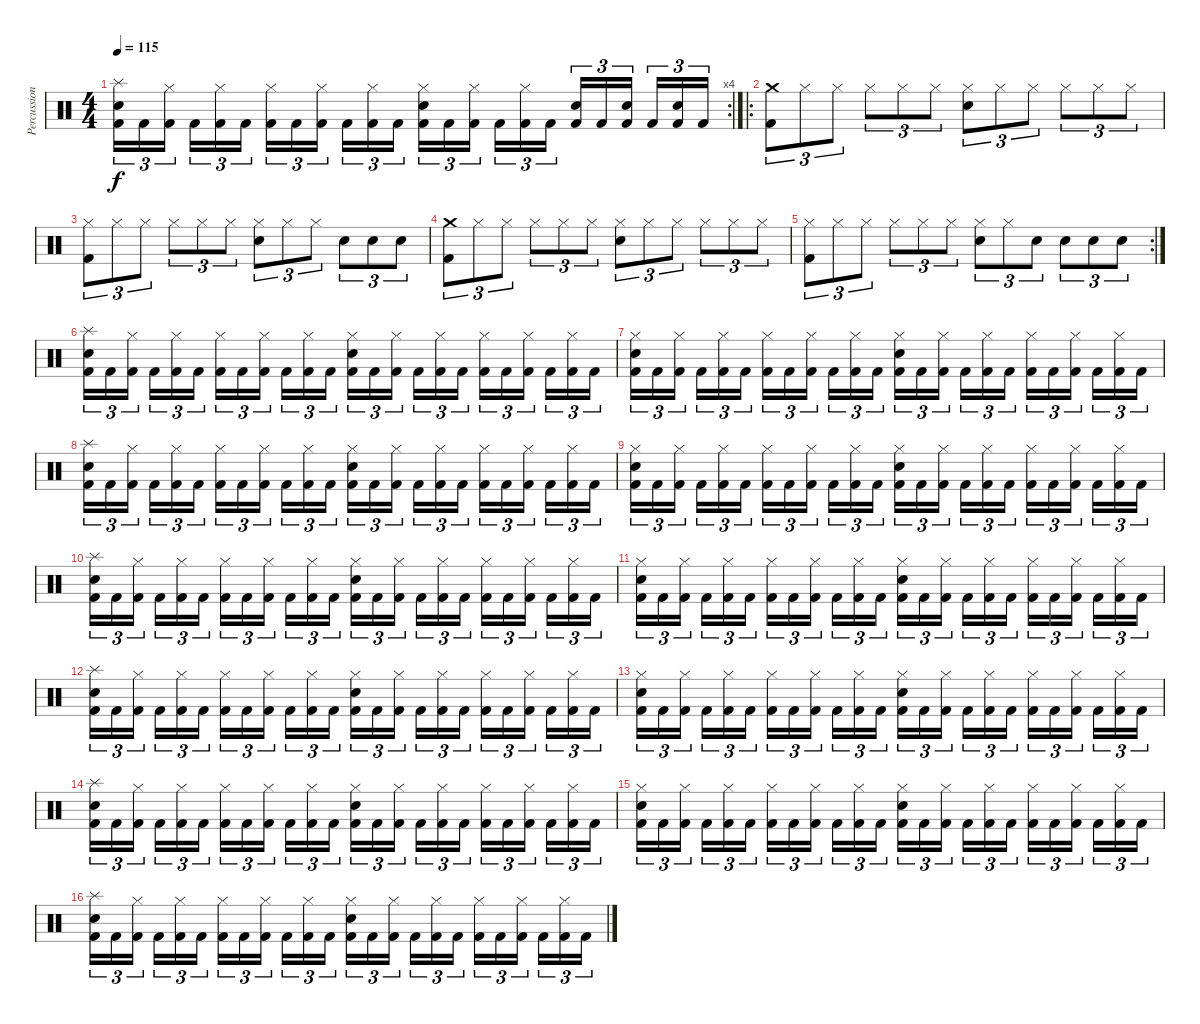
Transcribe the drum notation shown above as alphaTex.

\track ("Percussions" "Percussion") {instrument percussion}
\staff {score}
\articulation defaults
\rc 4
\ts (4 4)
\tempo 115
\clef neutral
\ks c
("Splash (hit)" "Snare (hit) 2" "Kick (hit) 2").16{tu (3 2) dy f} "Kick (hit) 2".16{tu (3 2)} ("Hi-Hat (closed)" "Kick (hit) 2").16{tu (3 2)} "Kick (hit) 2".16{tu (3 2)} ("Hi-Hat (closed)" "Kick (hit) 2").16{tu (3 2)} "Kick (hit) 2".16{tu (3 2)} ("Hi-Hat (closed)" "Kick (hit) 2").16{tu (3 2)} "Kick (hit) 2".16{tu (3 2)} ("Hi-Hat (closed)" "Kick (hit) 2").16{tu (3 2)} "Kick (hit) 2".16{tu (3 2)} ("Hi-Hat (closed)" "Kick (hit) 2").16{tu (3 2)} "Kick (hit) 2".16{tu (3 2)} ("Hi-Hat (closed)" "Snare (hit) 2" "Kick (hit) 2").16{tu (3 2)} "Kick (hit) 2".16{tu (3 2)} ("Hi-Hat (closed)" "Kick (hit) 2").16{tu (3 2)} "Kick (hit) 2".16{tu (3 2)} ("Hi-Hat (closed)" "Kick (hit) 2").16{tu (3 2)} "Kick (hit) 2".16{tu (3 2)} ("Snare (hit) 2" "Kick (hit) 2").16{tu (3 2)} "Kick (hit) 2".16{tu (3 2)} ("Snare (hit) 2" "Kick (hit) 2").16{tu (3 2)} "Kick (hit) 2".16{tu (3 2)} ("Snare (hit) 2" "Kick (hit) 2").16{tu (3 2)} "Kick (hit) 2".16{tu (3 2)} |
\ro
("Crash medium (hit)" "Kick (hit) 2").8{tu (3 2)} "Hi-Hat (closed)".8{tu (3 2)} "Hi-Hat (closed)".8{tu (3 2)} "Hi-Hat (closed)".8{tu (3 2)} "Hi-Hat (closed)".8{tu (3 2)} "Hi-Hat (closed)".8{tu (3 2)} ("Hi-Hat (closed)" "Snare (hit) 2").8{tu (3 2)} "Hi-Hat (closed)".8{tu (3 2)} "Hi-Hat (closed)".8{tu (3 2)} "Hi-Hat (closed)".8{tu (3 2)} "Hi-Hat (closed)".8{tu (3 2)} "Hi-Hat (closed)".8{tu (3 2)} |
("Hi-Hat (closed)" "Kick (hit) 2").8{tu (3 2)} "Hi-Hat (closed)".8{tu (3 2)} "Hi-Hat (closed)".8{tu (3 2)} "Hi-Hat (closed)".8{tu (3 2)} "Hi-Hat (closed)".8{tu (3 2)} "Hi-Hat (closed)".8{tu (3 2)} ("Hi-Hat (closed)" "Snare (hit) 2").8{tu (3 2)} "Hi-Hat (closed)".8{tu (3 2)} "Hi-Hat (closed)".8{tu (3 2)} "Snare (hit) 2".8{tu (3 2)} "Snare (hit) 2".8{tu (3 2)} "Snare (hit) 2".8{tu (3 2)} |
("Crash medium (hit)" "Kick (hit) 2").8{tu (3 2)} "Hi-Hat (closed)".8{tu (3 2)} "Hi-Hat (closed)".8{tu (3 2)} "Hi-Hat (closed)".8{tu (3 2)} "Hi-Hat (closed)".8{tu (3 2)} "Hi-Hat (closed)".8{tu (3 2)} ("Hi-Hat (closed)" "Snare (hit) 2").8{tu (3 2)} "Hi-Hat (closed)".8{tu (3 2)} "Hi-Hat (closed)".8{tu (3 2)} "Hi-Hat (closed)".8{tu (3 2)} "Hi-Hat (closed)".8{tu (3 2)} "Hi-Hat (closed)".8{tu (3 2)} |
\rc 2
("Hi-Hat (closed)" "Kick (hit) 2").8{tu (3 2)} "Hi-Hat (closed)".8{tu (3 2)} "Hi-Hat (closed)".8{tu (3 2)} "Hi-Hat (closed)".8{tu (3 2)} "Hi-Hat (closed)".8{tu (3 2)} "Hi-Hat (closed)".8{tu (3 2)} ("Hi-Hat (closed)" "Snare (hit) 2").8{tu (3 2)} "Hi-Hat (closed)".8{tu (3 2)} "Snare (hit) 2".8{tu (3 2)} "Snare (hit) 2".8{tu (3 2)} "Snare (hit) 2".8{tu (3 2)} "Snare (hit) 2".8{tu (3 2)} |
("Splash (hit)" "Snare (hit) 2" "Kick (hit) 2").16{tu (3 2)} "Kick (hit) 2".16{tu (3 2)} ("Hi-Hat (closed)" "Kick (hit) 2").16{tu (3 2)} "Kick (hit) 2".16{tu (3 2)} ("Hi-Hat (closed)" "Kick (hit) 2").16{tu (3 2)} "Kick (hit) 2".16{tu (3 2)} ("Hi-Hat (closed)" "Kick (hit) 2").16{tu (3 2)} "Kick (hit) 2".16{tu (3 2)} ("Hi-Hat (closed)" "Kick (hit) 2").16{tu (3 2)} "Kick (hit) 2".16{tu (3 2)} ("Hi-Hat (closed)" "Kick (hit) 2").16{tu (3 2)} "Kick (hit) 2".16{tu (3 2)} ("Hi-Hat (closed)" "Snare (hit) 2" "Kick (hit) 2").16{tu (3 2)} "Kick (hit) 2".16{tu (3 2)} ("Hi-Hat (closed)" "Kick (hit) 2").16{tu (3 2)} "Kick (hit) 2".16{tu (3 2)} ("Hi-Hat (closed)" "Kick (hit) 2").16{tu (3 2)} "Kick (hit) 2".16{tu (3 2)} ("Hi-Hat (closed)" "Kick (hit) 2").16{tu (3 2)} "Kick (hit) 2".16{tu (3 2)} ("Hi-Hat (closed)" "Kick (hit) 2").16{tu (3 2)} "Kick (hit) 2".16{tu (3 2)} ("Hi-Hat (closed)" "Kick (hit) 2").16{tu (3 2)} "Kick (hit) 2".16{tu (3 2)} |
("Hi-Hat (closed)" "Snare (hit) 2" "Kick (hit) 2").16{tu (3 2)} "Kick (hit) 2".16{tu (3 2)} ("Hi-Hat (closed)" "Kick (hit) 2").16{tu (3 2)} "Kick (hit) 2".16{tu (3 2)} ("Hi-Hat (closed)" "Kick (hit) 2").16{tu (3 2)} "Kick (hit) 2".16{tu (3 2)} ("Hi-Hat (closed)" "Kick (hit) 2").16{tu (3 2)} "Kick (hit) 2".16{tu (3 2)} ("Hi-Hat (closed)" "Kick (hit) 2").16{tu (3 2)} "Kick (hit) 2".16{tu (3 2)} ("Hi-Hat (closed)" "Kick (hit) 2").16{tu (3 2)} "Kick (hit) 2".16{tu (3 2)} ("Hi-Hat (closed)" "Snare (hit) 2" "Kick (hit) 2").16{tu (3 2)} "Kick (hit) 2".16{tu (3 2)} ("Hi-Hat (closed)" "Kick (hit) 2").16{tu (3 2)} "Kick (hit) 2".16{tu (3 2)} ("Hi-Hat (closed)" "Kick (hit) 2").16{tu (3 2)} "Kick (hit) 2".16{tu (3 2)} ("Hi-Hat (closed)" "Kick (hit) 2").16{tu (3 2)} "Kick (hit) 2".16{tu (3 2)} ("Hi-Hat (closed)" "Kick (hit) 2").16{tu (3 2)} "Kick (hit) 2".16{tu (3 2)} ("Hi-Hat (closed)" "Kick (hit) 2").16{tu (3 2)} "Kick (hit) 2".16{tu (3 2)} |
("Splash (hit)" "Snare (hit) 2" "Kick (hit) 2").16{tu (3 2)} "Kick (hit) 2".16{tu (3 2)} ("Hi-Hat (closed)" "Kick (hit) 2").16{tu (3 2)} "Kick (hit) 2".16{tu (3 2)} ("Hi-Hat (closed)" "Kick (hit) 2").16{tu (3 2)} "Kick (hit) 2".16{tu (3 2)} ("Hi-Hat (closed)" "Kick (hit) 2").16{tu (3 2)} "Kick (hit) 2".16{tu (3 2)} ("Hi-Hat (closed)" "Kick (hit) 2").16{tu (3 2)} "Kick (hit) 2".16{tu (3 2)} ("Hi-Hat (closed)" "Kick (hit) 2").16{tu (3 2)} "Kick (hit) 2".16{tu (3 2)} ("Hi-Hat (closed)" "Snare (hit) 2" "Kick (hit) 2").16{tu (3 2)} "Kick (hit) 2".16{tu (3 2)} ("Hi-Hat (closed)" "Kick (hit) 2").16{tu (3 2)} "Kick (hit) 2".16{tu (3 2)} ("Hi-Hat (closed)" "Kick (hit) 2").16{tu (3 2)} "Kick (hit) 2".16{tu (3 2)} ("Hi-Hat (closed)" "Kick (hit) 2").16{tu (3 2)} "Kick (hit) 2".16{tu (3 2)} ("Hi-Hat (closed)" "Kick (hit) 2").16{tu (3 2)} "Kick (hit) 2".16{tu (3 2)} ("Hi-Hat (closed)" "Kick (hit) 2").16{tu (3 2)} "Kick (hit) 2".16{tu (3 2)} |
("Hi-Hat (closed)" "Snare (hit) 2" "Kick (hit) 2").16{tu (3 2)} "Kick (hit) 2".16{tu (3 2)} ("Hi-Hat (closed)" "Kick (hit) 2").16{tu (3 2)} "Kick (hit) 2".16{tu (3 2)} ("Hi-Hat (closed)" "Kick (hit) 2").16{tu (3 2)} "Kick (hit) 2".16{tu (3 2)} ("Hi-Hat (closed)" "Kick (hit) 2").16{tu (3 2)} "Kick (hit) 2".16{tu (3 2)} ("Hi-Hat (closed)" "Kick (hit) 2").16{tu (3 2)} "Kick (hit) 2".16{tu (3 2)} ("Hi-Hat (closed)" "Kick (hit) 2").16{tu (3 2)} "Kick (hit) 2".16{tu (3 2)} ("Hi-Hat (closed)" "Snare (hit) 2" "Kick (hit) 2").16{tu (3 2)} "Kick (hit) 2".16{tu (3 2)} ("Hi-Hat (closed)" "Kick (hit) 2").16{tu (3 2)} "Kick (hit) 2".16{tu (3 2)} ("Hi-Hat (closed)" "Kick (hit) 2").16{tu (3 2)} "Kick (hit) 2".16{tu (3 2)} ("Hi-Hat (closed)" "Kick (hit) 2").16{tu (3 2)} "Kick (hit) 2".16{tu (3 2)} ("Hi-Hat (closed)" "Kick (hit) 2").16{tu (3 2)} "Kick (hit) 2".16{tu (3 2)} ("Hi-Hat (closed)" "Kick (hit) 2").16{tu (3 2)} "Kick (hit) 2".16{tu (3 2)} |
("Splash (hit)" "Snare (hit) 2" "Kick (hit) 2").16{tu (3 2)} "Kick (hit) 2".16{tu (3 2)} ("Hi-Hat (closed)" "Kick (hit) 2").16{tu (3 2)} "Kick (hit) 2".16{tu (3 2)} ("Hi-Hat (closed)" "Kick (hit) 2").16{tu (3 2)} "Kick (hit) 2".16{tu (3 2)} ("Hi-Hat (closed)" "Kick (hit) 2").16{tu (3 2)} "Kick (hit) 2".16{tu (3 2)} ("Hi-Hat (closed)" "Kick (hit) 2").16{tu (3 2)} "Kick (hit) 2".16{tu (3 2)} ("Hi-Hat (closed)" "Kick (hit) 2").16{tu (3 2)} "Kick (hit) 2".16{tu (3 2)} ("Hi-Hat (closed)" "Snare (hit) 2" "Kick (hit) 2").16{tu (3 2)} "Kick (hit) 2".16{tu (3 2)} ("Hi-Hat (closed)" "Kick (hit) 2").16{tu (3 2)} "Kick (hit) 2".16{tu (3 2)} ("Hi-Hat (closed)" "Kick (hit) 2").16{tu (3 2)} "Kick (hit) 2".16{tu (3 2)} ("Hi-Hat (closed)" "Kick (hit) 2").16{tu (3 2)} "Kick (hit) 2".16{tu (3 2)} ("Hi-Hat (closed)" "Kick (hit) 2").16{tu (3 2)} "Kick (hit) 2".16{tu (3 2)} ("Hi-Hat (closed)" "Kick (hit) 2").16{tu (3 2)} "Kick (hit) 2".16{tu (3 2)} |
("Hi-Hat (closed)" "Snare (hit) 2" "Kick (hit) 2").16{tu (3 2)} "Kick (hit) 2".16{tu (3 2)} ("Hi-Hat (closed)" "Kick (hit) 2").16{tu (3 2)} "Kick (hit) 2".16{tu (3 2)} ("Hi-Hat (closed)" "Kick (hit) 2").16{tu (3 2)} "Kick (hit) 2".16{tu (3 2)} ("Hi-Hat (closed)" "Kick (hit) 2").16{tu (3 2)} "Kick (hit) 2".16{tu (3 2)} ("Hi-Hat (closed)" "Kick (hit) 2").16{tu (3 2)} "Kick (hit) 2".16{tu (3 2)} ("Hi-Hat (closed)" "Kick (hit) 2").16{tu (3 2)} "Kick (hit) 2".16{tu (3 2)} ("Hi-Hat (closed)" "Snare (hit) 2" "Kick (hit) 2").16{tu (3 2)} "Kick (hit) 2".16{tu (3 2)} ("Hi-Hat (closed)" "Kick (hit) 2").16{tu (3 2)} "Kick (hit) 2".16{tu (3 2)} ("Hi-Hat (closed)" "Kick (hit) 2").16{tu (3 2)} "Kick (hit) 2".16{tu (3 2)} ("Hi-Hat (closed)" "Kick (hit) 2").16{tu (3 2)} "Kick (hit) 2".16{tu (3 2)} ("Hi-Hat (closed)" "Kick (hit) 2").16{tu (3 2)} "Kick (hit) 2".16{tu (3 2)} ("Hi-Hat (closed)" "Kick (hit) 2").16{tu (3 2)} "Kick (hit) 2".16{tu (3 2)} |
("Splash (hit)" "Snare (hit) 2" "Kick (hit) 2").16{tu (3 2)} "Kick (hit) 2".16{tu (3 2)} ("Hi-Hat (closed)" "Kick (hit) 2").16{tu (3 2)} "Kick (hit) 2".16{tu (3 2)} ("Hi-Hat (closed)" "Kick (hit) 2").16{tu (3 2)} "Kick (hit) 2".16{tu (3 2)} ("Hi-Hat (closed)" "Kick (hit) 2").16{tu (3 2)} "Kick (hit) 2".16{tu (3 2)} ("Hi-Hat (closed)" "Kick (hit) 2").16{tu (3 2)} "Kick (hit) 2".16{tu (3 2)} ("Hi-Hat (closed)" "Kick (hit) 2").16{tu (3 2)} "Kick (hit) 2".16{tu (3 2)} ("Hi-Hat (closed)" "Snare (hit) 2" "Kick (hit) 2").16{tu (3 2)} "Kick (hit) 2".16{tu (3 2)} ("Hi-Hat (closed)" "Kick (hit) 2").16{tu (3 2)} "Kick (hit) 2".16{tu (3 2)} ("Hi-Hat (closed)" "Kick (hit) 2").16{tu (3 2)} "Kick (hit) 2".16{tu (3 2)} ("Hi-Hat (closed)" "Kick (hit) 2").16{tu (3 2)} "Kick (hit) 2".16{tu (3 2)} ("Hi-Hat (closed)" "Kick (hit) 2").16{tu (3 2)} "Kick (hit) 2".16{tu (3 2)} ("Hi-Hat (closed)" "Kick (hit) 2").16{tu (3 2)} "Kick (hit) 2".16{tu (3 2)} |
("Hi-Hat (closed)" "Snare (hit) 2" "Kick (hit) 2").16{tu (3 2)} "Kick (hit) 2".16{tu (3 2)} ("Hi-Hat (closed)" "Kick (hit) 2").16{tu (3 2)} "Kick (hit) 2".16{tu (3 2)} ("Hi-Hat (closed)" "Kick (hit) 2").16{tu (3 2)} "Kick (hit) 2".16{tu (3 2)} ("Hi-Hat (closed)" "Kick (hit) 2").16{tu (3 2)} "Kick (hit) 2".16{tu (3 2)} ("Hi-Hat (closed)" "Kick (hit) 2").16{tu (3 2)} "Kick (hit) 2".16{tu (3 2)} ("Hi-Hat (closed)" "Kick (hit) 2").16{tu (3 2)} "Kick (hit) 2".16{tu (3 2)} ("Hi-Hat (closed)" "Snare (hit) 2" "Kick (hit) 2").16{tu (3 2)} "Kick (hit) 2".16{tu (3 2)} ("Hi-Hat (closed)" "Kick (hit) 2").16{tu (3 2)} "Kick (hit) 2".16{tu (3 2)} ("Hi-Hat (closed)" "Kick (hit) 2").16{tu (3 2)} "Kick (hit) 2".16{tu (3 2)} ("Hi-Hat (closed)" "Kick (hit) 2").16{tu (3 2)} "Kick (hit) 2".16{tu (3 2)} ("Hi-Hat (closed)" "Kick (hit) 2").16{tu (3 2)} "Kick (hit) 2".16{tu (3 2)} ("Hi-Hat (closed)" "Kick (hit) 2").16{tu (3 2)} "Kick (hit) 2".16{tu (3 2)} |
("Splash (hit)" "Snare (hit) 2" "Kick (hit) 2").16{tu (3 2)} "Kick (hit) 2".16{tu (3 2)} ("Hi-Hat (closed)" "Kick (hit) 2").16{tu (3 2)} "Kick (hit) 2".16{tu (3 2)} ("Hi-Hat (closed)" "Kick (hit) 2").16{tu (3 2)} "Kick (hit) 2".16{tu (3 2)} ("Hi-Hat (closed)" "Kick (hit) 2").16{tu (3 2)} "Kick (hit) 2".16{tu (3 2)} ("Hi-Hat (closed)" "Kick (hit) 2").16{tu (3 2)} "Kick (hit) 2".16{tu (3 2)} ("Hi-Hat (closed)" "Kick (hit) 2").16{tu (3 2)} "Kick (hit) 2".16{tu (3 2)} ("Hi-Hat (closed)" "Snare (hit) 2" "Kick (hit) 2").16{tu (3 2)} "Kick (hit) 2".16{tu (3 2)} ("Hi-Hat (closed)" "Kick (hit) 2").16{tu (3 2)} "Kick (hit) 2".16{tu (3 2)} ("Hi-Hat (closed)" "Kick (hit) 2").16{tu (3 2)} "Kick (hit) 2".16{tu (3 2)} ("Hi-Hat (closed)" "Kick (hit) 2").16{tu (3 2)} "Kick (hit) 2".16{tu (3 2)} ("Hi-Hat (closed)" "Kick (hit) 2").16{tu (3 2)} "Kick (hit) 2".16{tu (3 2)} ("Hi-Hat (closed)" "Kick (hit) 2").16{tu (3 2)} "Kick (hit) 2".16{tu (3 2)} |
("Hi-Hat (closed)" "Snare (hit) 2" "Kick (hit) 2").16{tu (3 2)} "Kick (hit) 2".16{tu (3 2)} ("Hi-Hat (closed)" "Kick (hit) 2").16{tu (3 2)} "Kick (hit) 2".16{tu (3 2)} ("Hi-Hat (closed)" "Kick (hit) 2").16{tu (3 2)} "Kick (hit) 2".16{tu (3 2)} ("Hi-Hat (closed)" "Kick (hit) 2").16{tu (3 2)} "Kick (hit) 2".16{tu (3 2)} ("Hi-Hat (closed)" "Kick (hit) 2").16{tu (3 2)} "Kick (hit) 2".16{tu (3 2)} ("Hi-Hat (closed)" "Kick (hit) 2").16{tu (3 2)} "Kick (hit) 2".16{tu (3 2)} ("Hi-Hat (closed)" "Snare (hit) 2" "Kick (hit) 2").16{tu (3 2)} "Kick (hit) 2".16{tu (3 2)} ("Hi-Hat (closed)" "Kick (hit) 2").16{tu (3 2)} "Kick (hit) 2".16{tu (3 2)} ("Hi-Hat (closed)" "Kick (hit) 2").16{tu (3 2)} "Kick (hit) 2".16{tu (3 2)} ("Hi-Hat (closed)" "Kick (hit) 2").16{tu (3 2)} "Kick (hit) 2".16{tu (3 2)} ("Hi-Hat (closed)" "Kick (hit) 2").16{tu (3 2)} "Kick (hit) 2".16{tu (3 2)} ("Hi-Hat (closed)" "Kick (hit) 2").16{tu (3 2)} "Kick (hit) 2".16{tu (3 2)} |
("Splash (hit)" "Snare (hit) 2" "Kick (hit) 2").16{tu (3 2)} "Kick (hit) 2".16{tu (3 2)} ("Hi-Hat (closed)" "Kick (hit) 2").16{tu (3 2)} "Kick (hit) 2".16{tu (3 2)} ("Hi-Hat (closed)" "Kick (hit) 2").16{tu (3 2)} "Kick (hit) 2".16{tu (3 2)} ("Hi-Hat (closed)" "Kick (hit) 2").16{tu (3 2)} "Kick (hit) 2".16{tu (3 2)} ("Hi-Hat (closed)" "Kick (hit) 2").16{tu (3 2)} "Kick (hit) 2".16{tu (3 2)} ("Hi-Hat (closed)" "Kick (hit) 2").16{tu (3 2)} "Kick (hit) 2".16{tu (3 2)} ("Hi-Hat (closed)" "Snare (hit) 2" "Kick (hit) 2").16{tu (3 2)} "Kick (hit) 2".16{tu (3 2)} ("Hi-Hat (closed)" "Kick (hit) 2").16{tu (3 2)} "Kick (hit) 2".16{tu (3 2)} ("Hi-Hat (closed)" "Kick (hit) 2").16{tu (3 2)} "Kick (hit) 2".16{tu (3 2)} ("Hi-Hat (closed)" "Kick (hit) 2").16{tu (3 2)} "Kick (hit) 2".16{tu (3 2)} ("Hi-Hat (closed)" "Kick (hit) 2").16{tu (3 2)} "Kick (hit) 2".16{tu (3 2)} ("Hi-Hat (closed)" "Kick (hit) 2").16{tu (3 2)} "Kick (hit) 2".16{tu (3 2)}
